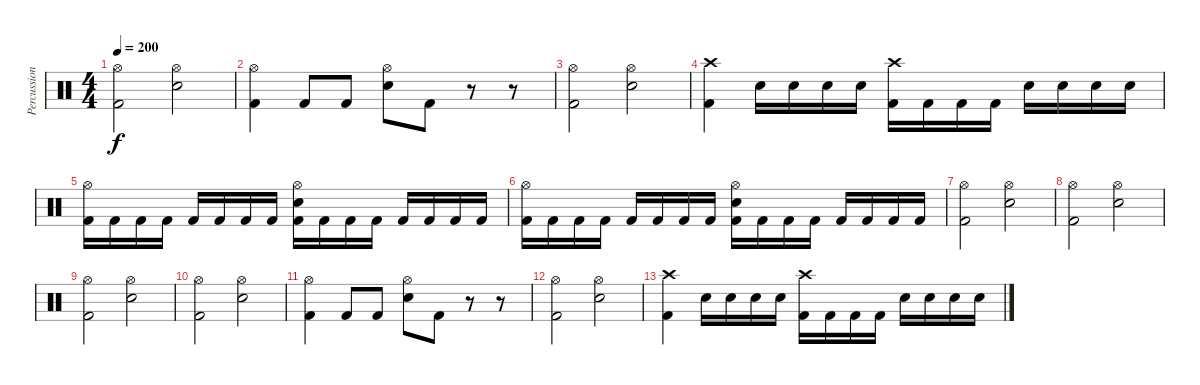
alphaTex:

\track ("Percussion" "Percussion") {instrument percussion}
\staff {score}
\articulation defaults
\ts (4 4)
\tempo 200
\clef neutral
\ks c
("Hi-Hat (open)" "Kick (hit) 2").2{dy f} ("Snare (hit) 2" "Hi-Hat (open)").2 |
("Kick (hit) 2" "Hi-Hat (open)").4 "Kick (hit) 2".8 "Kick (hit) 2".8 ("Snare (hit) 2" "Hi-Hat (open)").8 "Kick (hit) 2".8 r.8 r.8 |
("Hi-Hat (open)" "Kick (hit) 2").2 ("Snare (hit) 2" "Hi-Hat (open)").2 |
("Kick (hit) 2" "Crash high (hit)").4 "Snare (hit) 2".16 "Snare (hit) 2".16 "Snare (hit) 2".16 "Snare (hit) 2".16 ("Kick (hit) 2" "Crash high (hit)").16 "Kick (hit) 2".16 "Kick (hit) 2".16 "Kick (hit) 2".16 "Snare (hit) 2".16 "Snare (hit) 2".16 "Snare (hit) 2".16 "Snare (hit) 2".16 |
("Kick (hit) 2" "Hi-Hat (open)").16 "Kick (hit) 2".16 "Kick (hit) 2".16 "Kick (hit) 2".16 "Kick (hit) 2".16 "Kick (hit) 2".16 "Kick (hit) 2".16 "Kick (hit) 2".16 ("Kick (hit) 2" "Hi-Hat (open)" "Snare (hit) 2").16 "Kick (hit) 2".16 "Kick (hit) 2".16 "Kick (hit) 2".16 "Kick (hit) 2".16 "Kick (hit) 2".16 "Kick (hit) 2".16 "Kick (hit) 2".16 |
("Kick (hit) 2" "Hi-Hat (open)").16 "Kick (hit) 2".16 "Kick (hit) 2".16 "Kick (hit) 2".16 "Kick (hit) 2".16 "Kick (hit) 2".16 "Kick (hit) 2".16 "Kick (hit) 2".16 ("Kick (hit) 2" "Hi-Hat (open)" "Snare (hit) 2").16 "Kick (hit) 2".16 "Kick (hit) 2".16 "Kick (hit) 2".16 "Kick (hit) 2".16 "Kick (hit) 2".16 "Kick (hit) 2".16 "Kick (hit) 2".16 |
("Hi-Hat (open)" "Kick (hit) 2").2 ("Snare (hit) 2" "Hi-Hat (open)").2 |
("Hi-Hat (open)" "Kick (hit) 2").2 ("Snare (hit) 2" "Hi-Hat (open)").2 |
("Hi-Hat (open)" "Kick (hit) 2").2 ("Snare (hit) 2" "Hi-Hat (open)").2 |
("Hi-Hat (open)" "Kick (hit) 2").2 ("Snare (hit) 2" "Hi-Hat (open)").2 |
("Kick (hit) 2" "Hi-Hat (open)").4 "Kick (hit) 2".8 "Kick (hit) 2".8 ("Snare (hit) 2" "Hi-Hat (open)").8 "Kick (hit) 2".8 r.8 r.8 |
("Hi-Hat (open)" "Kick (hit) 2").2 ("Snare (hit) 2" "Hi-Hat (open)").2 |
("Kick (hit) 2" "Crash high (hit)").4 "Snare (hit) 2".16 "Snare (hit) 2".16 "Snare (hit) 2".16 "Snare (hit) 2".16 ("Kick (hit) 2" "Crash high (hit)").16 "Kick (hit) 2".16 "Kick (hit) 2".16 "Kick (hit) 2".16 "Snare (hit) 2".16 "Snare (hit) 2".16 "Snare (hit) 2".16 "Snare (hit) 2".16
